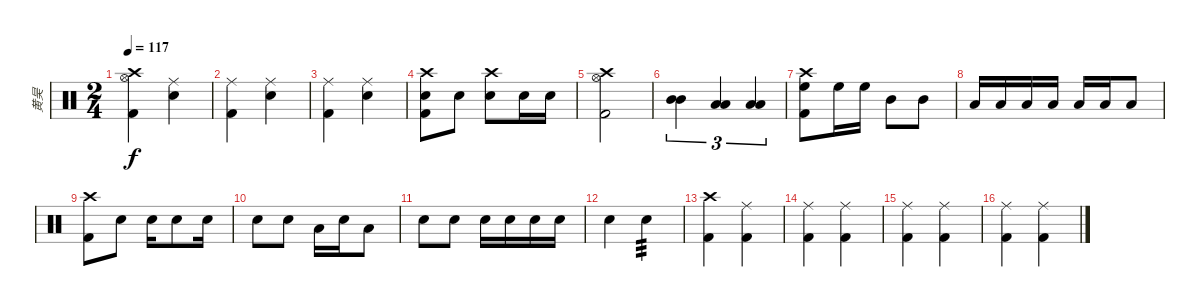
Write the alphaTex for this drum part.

\track ("黄昊" "黄昊") {instrument percussion}
\staff {score}
\articulation defaults
\ts (2 4)
\tempo 117
\clef neutral
\ks c
("Crash high (hit)" "Hi-Hat (open)" "Kick (hit) 2").4{dy f} ("Ride (middle)" "Snare (hit) 2").4 |
("Ride (middle)" "Kick (hit) 2").4 ("Ride (middle)" "Snare (hit) 2").4 |
("Ride (middle)" "Kick (hit) 2").4 ("Ride (middle)" "Snare (hit) 2").4 |
("Crash high (hit)" "Snare (hit) 2" "Kick (hit) 2").8 "Snare (hit) 2".8 ("Crash high (hit)" "Snare (hit) 2").8 "Snare (hit) 2".16 "Snare (hit) 2".16 |
("Crash high (hit)" "Hi-Hat (open)" "Kick (hit) 2").2 |
("Mid Tom (hit)" "Mid Tom (hit)").4{tu (3 2)} ("Low Tom (hit)" "Low Tom (hit)").4{tu (3 2)} ("Low Floor Tom (hit)" "Low Floor Tom (hit)").4{tu (3 2)} |
("Crash high (hit)" "High Floor Tom (hit)" "Kick (hit) 2").8 "High Floor Tom (hit)".16 "High Floor Tom (hit)".16 "Mid Tom (hit)".8 "Mid Tom (hit)".8 |
"Low Tom (hit)".16 "Low Tom (hit)".16 "Low Tom (hit)".16 "Low Tom (hit)".16 "Low Floor Tom (hit)".16 "Low Floor Tom (hit)".16 "Low Floor Tom (hit)".8 |
("Crash high (hit)" "Kick (hit) 2").8 "Snare (hit) 2".8 "Snare (hit) 2".16 "Snare (hit) 2".8 "Snare (hit) 2".16 |
"Snare (hit) 2".8 "Snare (hit) 2".8 "Low Floor Tom (hit)".16 "Snare (hit) 2".16 "Low Floor Tom (hit)".8 |
"Snare (hit) 2".8 "Snare (hit) 2".8 "Snare (hit) 2".16 "Snare (hit) 2".16 "Snare (hit) 2".16 "Snare (hit) 2".16 |
"Snare (hit) 2".4 "Snare (hit) 2".4{tp 3 volume 9} |
("Crash high (hit)" "Kick (hit) 2").4{volume 15} ("Ride (middle)" "Kick (hit) 2").4 |
("Ride (middle)" "Kick (hit) 2").4 ("Ride (middle)" "Kick (hit) 2").4 |
("Ride (middle)" "Kick (hit) 2").4 ("Ride (middle)" "Kick (hit) 2").4 |
("Ride (middle)" "Kick (hit) 2").4 ("Ride (middle)" "Kick (hit) 2").4
